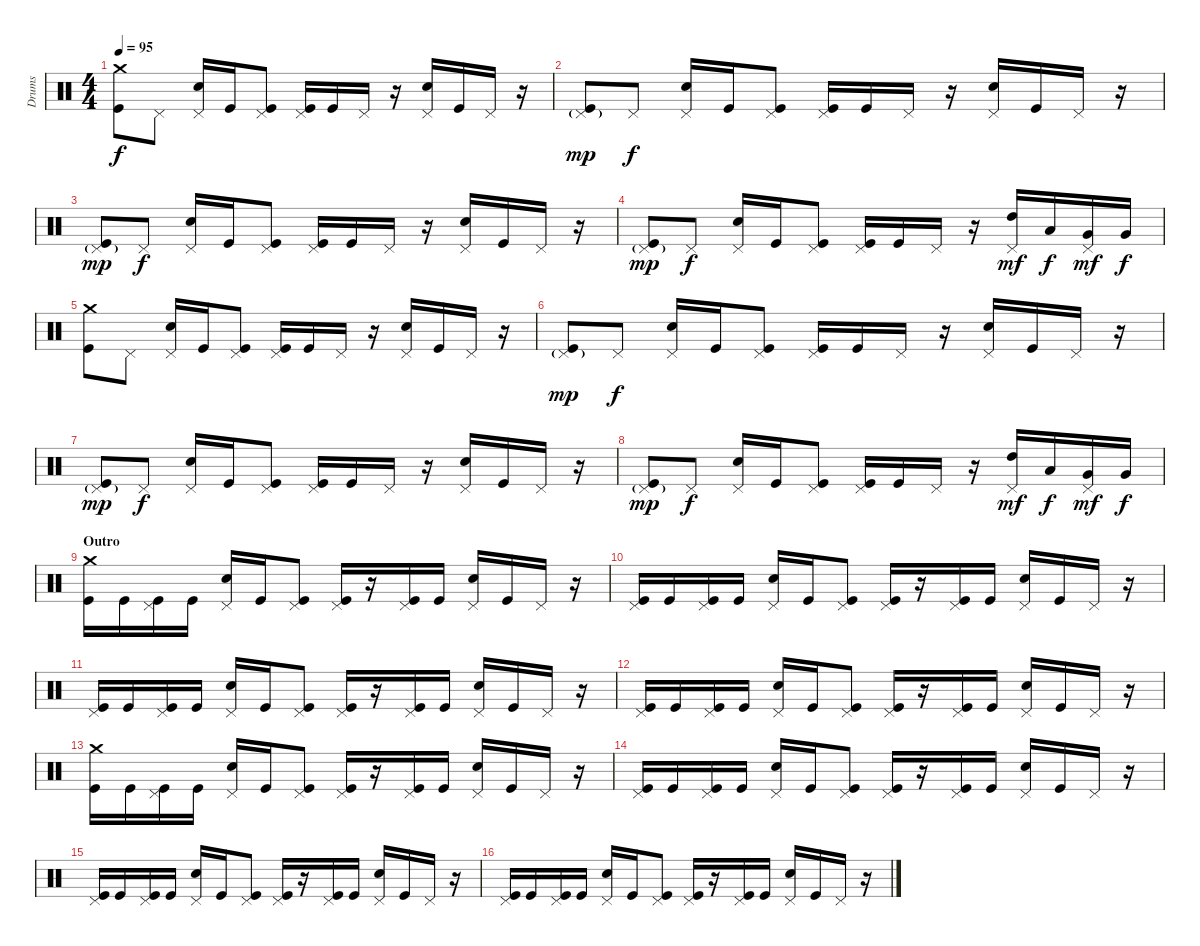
\track ("Drums" "Drums") {instrument percussion}
\staff {score}
\articulation defaults
\ts (4 4)
\tempo 95
\clef neutral
\ks c
("Crash medium (hit)" "Kick (hit)").8{dy f} "Pedal Hi-Hat (hit)".8 ("Pedal Hi-Hat (hit)" "Snare (hit) 2").16 "Kick (hit)".16 ("Pedal Hi-Hat (hit)" "Kick (hit)").8 ("Pedal Hi-Hat (hit)" "Kick (hit)").16 "Kick (hit)".16 "Pedal Hi-Hat (hit)".16 r.16 ("Pedal Hi-Hat (hit)" "Snare (hit) 2").16 "Kick (hit)".16 "Pedal Hi-Hat (hit)".16 r.16 |
("Pedal Hi-Hat (hit)"{g} "Kick (hit)").8{dy mp} "Pedal Hi-Hat (hit)".8{dy f} ("Pedal Hi-Hat (hit)" "Snare (hit) 2").16 "Kick (hit)".16 ("Pedal Hi-Hat (hit)" "Kick (hit)").8 ("Pedal Hi-Hat (hit)" "Kick (hit)").16 "Kick (hit)".16 "Pedal Hi-Hat (hit)".16 r.16 ("Pedal Hi-Hat (hit)" "Snare (hit) 2").16 "Kick (hit)".16 "Pedal Hi-Hat (hit)".16 r.16 |
("Pedal Hi-Hat (hit)"{g} "Kick (hit)").8{dy mp} "Pedal Hi-Hat (hit)".8{dy f} ("Pedal Hi-Hat (hit)" "Snare (hit) 2").16 "Kick (hit)".16 ("Pedal Hi-Hat (hit)" "Kick (hit)").8 ("Pedal Hi-Hat (hit)" "Kick (hit)").16 "Kick (hit)".16 "Pedal Hi-Hat (hit)".16 r.16 ("Pedal Hi-Hat (hit)" "Snare (hit) 2").16 "Kick (hit)".16 "Pedal Hi-Hat (hit)".16 r.16 |
("Pedal Hi-Hat (hit)"{g} "Kick (hit)").8{dy mp} "Pedal Hi-Hat (hit)".8{dy f} ("Pedal Hi-Hat (hit)" "Snare (hit) 2").16 "Kick (hit)".16 ("Pedal Hi-Hat (hit)" "Kick (hit)").8 ("Pedal Hi-Hat (hit)" "Kick (hit)").16 "Kick (hit)".16 "Pedal Hi-Hat (hit)".16 r.16 ("Pedal Hi-Hat (hit)" "High Tom (hit)").16{dy mf} "Low Tom (hit)".16{dy f} ("Pedal Hi-Hat (hit)" "Very Low Tom (hit)").16{dy mf} "Very Low Tom (hit)".16{dy f} |
("Crash medium (hit)" "Kick (hit)").8 "Pedal Hi-Hat (hit)".8 ("Pedal Hi-Hat (hit)" "Snare (hit) 2").16 "Kick (hit)".16 ("Pedal Hi-Hat (hit)" "Kick (hit)").8 ("Pedal Hi-Hat (hit)" "Kick (hit)").16 "Kick (hit)".16 "Pedal Hi-Hat (hit)".16 r.16 ("Pedal Hi-Hat (hit)" "Snare (hit) 2").16 "Kick (hit)".16 "Pedal Hi-Hat (hit)".16 r.16 |
("Pedal Hi-Hat (hit)"{g} "Kick (hit)").8{dy mp} "Pedal Hi-Hat (hit)".8{dy f} ("Pedal Hi-Hat (hit)" "Snare (hit) 2").16 "Kick (hit)".16 ("Pedal Hi-Hat (hit)" "Kick (hit)").8 ("Pedal Hi-Hat (hit)" "Kick (hit)").16 "Kick (hit)".16 "Pedal Hi-Hat (hit)".16 r.16 ("Pedal Hi-Hat (hit)" "Snare (hit) 2").16 "Kick (hit)".16 "Pedal Hi-Hat (hit)".16 r.16 |
("Pedal Hi-Hat (hit)"{g} "Kick (hit)").8{dy mp} "Pedal Hi-Hat (hit)".8{dy f} ("Pedal Hi-Hat (hit)" "Snare (hit) 2").16 "Kick (hit)".16 ("Pedal Hi-Hat (hit)" "Kick (hit)").8 ("Pedal Hi-Hat (hit)" "Kick (hit)").16 "Kick (hit)".16 "Pedal Hi-Hat (hit)".16 r.16 ("Pedal Hi-Hat (hit)" "Snare (hit) 2").16 "Kick (hit)".16 "Pedal Hi-Hat (hit)".16 r.16 |
("Pedal Hi-Hat (hit)"{g} "Kick (hit)").8{dy mp} "Pedal Hi-Hat (hit)".8{dy f} ("Pedal Hi-Hat (hit)" "Snare (hit) 2").16 "Kick (hit)".16 ("Pedal Hi-Hat (hit)" "Kick (hit)").8 ("Pedal Hi-Hat (hit)" "Kick (hit)").16 "Kick (hit)".16 "Pedal Hi-Hat (hit)".16 r.16 ("Pedal Hi-Hat (hit)" "High Tom (hit)").16{dy mf} "Low Tom (hit)".16{dy f} ("Pedal Hi-Hat (hit)" "Very Low Tom (hit)").16{dy mf} "Very Low Tom (hit)".16{dy f} |
\section ("" "Outro")
("Crash medium (hit)" "Kick (hit)").16 "Kick (hit)".16 ("Pedal Hi-Hat (hit)" "Kick (hit)").16 "Kick (hit)".16 ("Pedal Hi-Hat (hit)" "Snare (hit) 2").16 "Kick (hit)".16 ("Pedal Hi-Hat (hit)" "Kick (hit)").8 ("Pedal Hi-Hat (hit)" "Kick (hit)").16 r.16 ("Pedal Hi-Hat (hit)" "Kick (hit)").16 "Kick (hit)".16 ("Pedal Hi-Hat (hit)" "Snare (hit) 2").16 "Kick (hit)".16 "Pedal Hi-Hat (hit)".16 r.16 |
("Pedal Hi-Hat (hit)" "Kick (hit)").16 "Kick (hit)".16 ("Pedal Hi-Hat (hit)" "Kick (hit)").16 "Kick (hit)".16 ("Pedal Hi-Hat (hit)" "Snare (hit) 2").16 "Kick (hit)".16 ("Pedal Hi-Hat (hit)" "Kick (hit)").8 ("Pedal Hi-Hat (hit)" "Kick (hit)").16 r.16 ("Pedal Hi-Hat (hit)" "Kick (hit)").16 "Kick (hit)".16 ("Pedal Hi-Hat (hit)" "Snare (hit) 2").16 "Kick (hit)".16 "Pedal Hi-Hat (hit)".16 r.16 |
("Pedal Hi-Hat (hit)" "Kick (hit)").16 "Kick (hit)".16 ("Pedal Hi-Hat (hit)" "Kick (hit)").16 "Kick (hit)".16 ("Pedal Hi-Hat (hit)" "Snare (hit) 2").16 "Kick (hit)".16 ("Pedal Hi-Hat (hit)" "Kick (hit)").8 ("Pedal Hi-Hat (hit)" "Kick (hit)").16 r.16 ("Pedal Hi-Hat (hit)" "Kick (hit)").16 "Kick (hit)".16 ("Pedal Hi-Hat (hit)" "Snare (hit) 2").16 "Kick (hit)".16 "Pedal Hi-Hat (hit)".16 r.16 |
("Pedal Hi-Hat (hit)" "Kick (hit)").16 "Kick (hit)".16 ("Pedal Hi-Hat (hit)" "Kick (hit)").16 "Kick (hit)".16 ("Pedal Hi-Hat (hit)" "Snare (hit) 2").16 "Kick (hit)".16 ("Pedal Hi-Hat (hit)" "Kick (hit)").8 ("Pedal Hi-Hat (hit)" "Kick (hit)").16 r.16 ("Pedal Hi-Hat (hit)" "Kick (hit)").16 "Kick (hit)".16 ("Pedal Hi-Hat (hit)" "Snare (hit) 2").16 "Kick (hit)".16 "Pedal Hi-Hat (hit)".16 r.16 |
("Crash medium (hit)" "Kick (hit)").16 "Kick (hit)".16 ("Pedal Hi-Hat (hit)" "Kick (hit)").16 "Kick (hit)".16 ("Pedal Hi-Hat (hit)" "Snare (hit) 2").16 "Kick (hit)".16 ("Pedal Hi-Hat (hit)" "Kick (hit)").8 ("Pedal Hi-Hat (hit)" "Kick (hit)").16 r.16 ("Pedal Hi-Hat (hit)" "Kick (hit)").16 "Kick (hit)".16 ("Pedal Hi-Hat (hit)" "Snare (hit) 2").16 "Kick (hit)".16 "Pedal Hi-Hat (hit)".16 r.16 |
("Pedal Hi-Hat (hit)" "Kick (hit)").16 "Kick (hit)".16 ("Pedal Hi-Hat (hit)" "Kick (hit)").16 "Kick (hit)".16 ("Pedal Hi-Hat (hit)" "Snare (hit) 2").16 "Kick (hit)".16 ("Pedal Hi-Hat (hit)" "Kick (hit)").8 ("Pedal Hi-Hat (hit)" "Kick (hit)").16 r.16 ("Pedal Hi-Hat (hit)" "Kick (hit)").16 "Kick (hit)".16 ("Pedal Hi-Hat (hit)" "Snare (hit) 2").16 "Kick (hit)".16 "Pedal Hi-Hat (hit)".16 r.16 |
("Pedal Hi-Hat (hit)" "Kick (hit)").16 "Kick (hit)".16 ("Pedal Hi-Hat (hit)" "Kick (hit)").16 "Kick (hit)".16 ("Pedal Hi-Hat (hit)" "Snare (hit) 2").16 "Kick (hit)".16 ("Pedal Hi-Hat (hit)" "Kick (hit)").8 ("Pedal Hi-Hat (hit)" "Kick (hit)").16 r.16 ("Pedal Hi-Hat (hit)" "Kick (hit)").16 "Kick (hit)".16 ("Pedal Hi-Hat (hit)" "Snare (hit) 2").16 "Kick (hit)".16 "Pedal Hi-Hat (hit)".16 r.16 |
("Pedal Hi-Hat (hit)" "Kick (hit)").16 "Kick (hit)".16 ("Pedal Hi-Hat (hit)" "Kick (hit)").16 "Kick (hit)".16 ("Pedal Hi-Hat (hit)" "Snare (hit) 2").16 "Kick (hit)".16 ("Pedal Hi-Hat (hit)" "Kick (hit)").8 ("Pedal Hi-Hat (hit)" "Kick (hit)").16 r.16 ("Pedal Hi-Hat (hit)" "Kick (hit)").16 "Kick (hit)".16 ("Pedal Hi-Hat (hit)" "Snare (hit) 2").16 "Kick (hit)".16 "Pedal Hi-Hat (hit)".16 r.16
